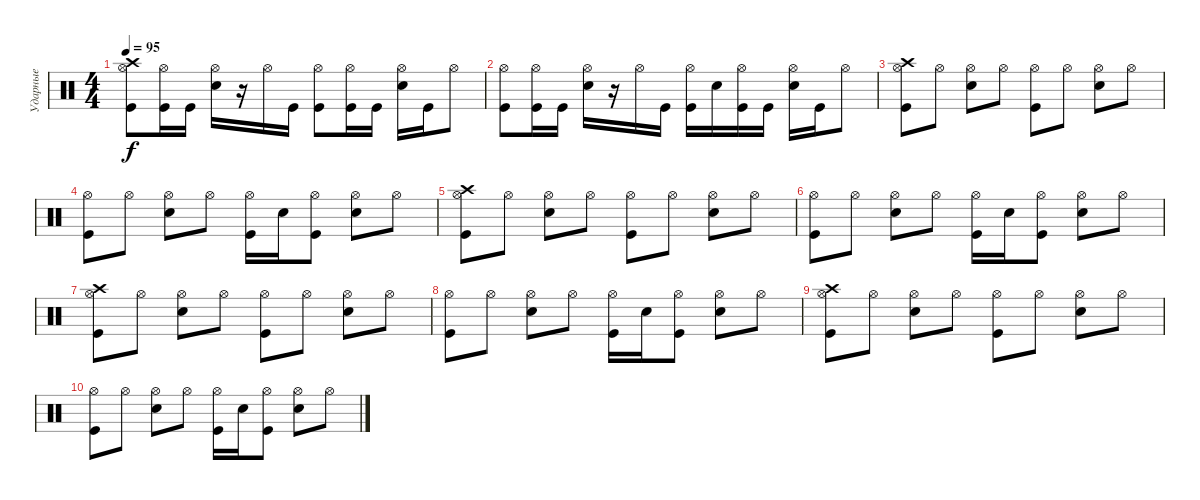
\track ("Ударные" "Ударные") {instrument percussion}
\staff {score}
\articulation defaults
\ts (4 4)
\tempo 95
\clef neutral
\ks c
("Kick (hit)" "Hi-Hat (open)" "Crash high (hit)").8{dy f} ("Kick (hit)" "Hi-Hat (open)").16 "Kick (hit)".16 ("Snare (hit) 2" "Hi-Hat (open)").16 r.16 "Hi-Hat (open)".16 "Kick (hit)".16 ("Kick (hit)" "Hi-Hat (open)").8 ("Kick (hit)" "Hi-Hat (open)").16 "Kick (hit)".16 ("Snare (hit) 2" "Hi-Hat (open)").16 "Kick (hit)".16 "Hi-Hat (open)".8 |
("Kick (hit)" "Hi-Hat (open)").8 ("Kick (hit)" "Hi-Hat (open)").16 "Kick (hit)".16 ("Snare (hit) 2" "Hi-Hat (open)").16 r.16 "Hi-Hat (open)".16 "Kick (hit)".16 ("Kick (hit)" "Hi-Hat (open)").16 "Snare (hit) 2".16 ("Kick (hit)" "Hi-Hat (open)").16 "Kick (hit)".16 ("Snare (hit) 2" "Hi-Hat (open)").16 "Kick (hit)".16 "Hi-Hat (open)".8 |
("Kick (hit)" "Hi-Hat (open)" "Crash high (hit)").8 "Hi-Hat (open)".8 ("Snare (hit) 2" "Hi-Hat (open)").8 "Hi-Hat (open)".8 ("Kick (hit)" "Hi-Hat (open)").8 "Hi-Hat (open)".8 ("Snare (hit) 2" "Hi-Hat (open)").8 "Hi-Hat (open)".8 |
("Kick (hit)" "Hi-Hat (open)").8 "Hi-Hat (open)".8 ("Snare (hit) 2" "Hi-Hat (open)").8 "Hi-Hat (open)".8 ("Kick (hit)" "Hi-Hat (open)").16 "Snare (hit) 2".16 ("Kick (hit)" "Hi-Hat (open)").8 ("Snare (hit) 2" "Hi-Hat (open)").8 "Hi-Hat (open)".8 |
("Kick (hit)" "Hi-Hat (open)" "Crash high (hit)").8 "Hi-Hat (open)".8 ("Snare (hit) 2" "Hi-Hat (open)").8 "Hi-Hat (open)".8 ("Kick (hit)" "Hi-Hat (open)").8 "Hi-Hat (open)".8 ("Snare (hit) 2" "Hi-Hat (open)").8 "Hi-Hat (open)".8 |
("Kick (hit)" "Hi-Hat (open)").8 "Hi-Hat (open)".8 ("Snare (hit) 2" "Hi-Hat (open)").8 "Hi-Hat (open)".8 ("Kick (hit)" "Hi-Hat (open)").16 "Snare (hit) 2".16 ("Kick (hit)" "Hi-Hat (open)").8 ("Snare (hit) 2" "Hi-Hat (open)").8 "Hi-Hat (open)".8 |
("Kick (hit)" "Hi-Hat (open)" "Crash high (hit)").8 "Hi-Hat (open)".8 ("Snare (hit) 2" "Hi-Hat (open)").8 "Hi-Hat (open)".8 ("Kick (hit)" "Hi-Hat (open)").8 "Hi-Hat (open)".8 ("Snare (hit) 2" "Hi-Hat (open)").8 "Hi-Hat (open)".8 |
("Kick (hit)" "Hi-Hat (open)").8 "Hi-Hat (open)".8 ("Snare (hit) 2" "Hi-Hat (open)").8 "Hi-Hat (open)".8 ("Kick (hit)" "Hi-Hat (open)").16 "Snare (hit) 2".16 ("Kick (hit)" "Hi-Hat (open)").8 ("Snare (hit) 2" "Hi-Hat (open)").8 "Hi-Hat (open)".8 |
("Kick (hit)" "Hi-Hat (open)" "Crash high (hit)").8 "Hi-Hat (open)".8 ("Snare (hit) 2" "Hi-Hat (open)").8 "Hi-Hat (open)".8 ("Kick (hit)" "Hi-Hat (open)").8 "Hi-Hat (open)".8 ("Snare (hit) 2" "Hi-Hat (open)").8 "Hi-Hat (open)".8 |
("Kick (hit)" "Hi-Hat (open)").8 "Hi-Hat (open)".8 ("Snare (hit) 2" "Hi-Hat (open)").8 "Hi-Hat (open)".8 ("Kick (hit)" "Hi-Hat (open)").16 "Snare (hit) 2".16 ("Kick (hit)" "Hi-Hat (open)").8 ("Snare (hit) 2" "Hi-Hat (open)").8 "Hi-Hat (open)".8
